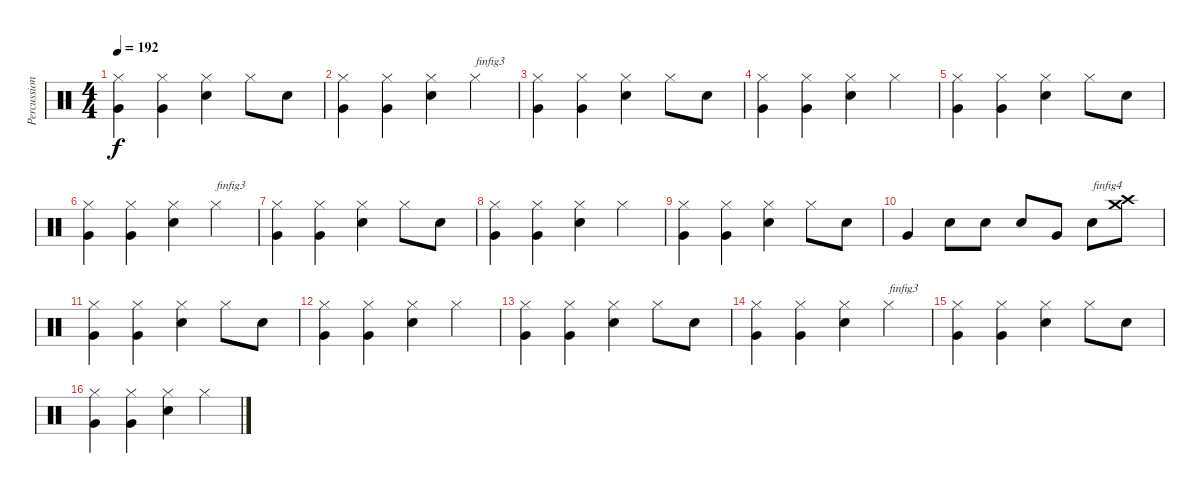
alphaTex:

\track ("Percussions" "Percussion") {instrument percussion}
\staff {score}
\articulation defaults
\ts (4 4)
\tempo 192
\clef neutral
\ks c
("Very Low Tom (hit)" "Hi-Hat (closed)").4{dy f} ("Very Low Tom (hit)" "Hi-Hat (closed)").4 ("Snare (hit) 2" "Hi-Hat (closed)").4 "Hi-Hat (closed)".8 "Snare (hit) 2".8 |
("Very Low Tom (hit)" "Hi-Hat (closed)").4 ("Very Low Tom (hit)" "Hi-Hat (closed)").4 ("Snare (hit) 2" "Hi-Hat (closed)").4 "Hi-Hat (closed)".4{txt "finfig3"} |
("Very Low Tom (hit)" "Hi-Hat (closed)").4 ("Very Low Tom (hit)" "Hi-Hat (closed)").4 ("Snare (hit) 2" "Hi-Hat (closed)").4 "Hi-Hat (closed)".8 "Snare (hit) 2".8 |
("Very Low Tom (hit)" "Hi-Hat (closed)").4 ("Very Low Tom (hit)" "Hi-Hat (closed)").4 ("Snare (hit) 2" "Hi-Hat (closed)").4 "Hi-Hat (closed)".4 |
("Very Low Tom (hit)" "Hi-Hat (closed)").4 ("Very Low Tom (hit)" "Hi-Hat (closed)").4 ("Snare (hit) 2" "Hi-Hat (closed)").4 "Hi-Hat (closed)".8 "Snare (hit) 2".8 |
("Very Low Tom (hit)" "Hi-Hat (closed)").4 ("Very Low Tom (hit)" "Hi-Hat (closed)").4 ("Snare (hit) 2" "Hi-Hat (closed)").4 "Hi-Hat (closed)".4{txt "finfig3"} |
("Very Low Tom (hit)" "Hi-Hat (closed)").4 ("Very Low Tom (hit)" "Hi-Hat (closed)").4 ("Snare (hit) 2" "Hi-Hat (closed)").4 "Hi-Hat (closed)".8 "Snare (hit) 2".8 |
("Very Low Tom (hit)" "Hi-Hat (closed)").4 ("Very Low Tom (hit)" "Hi-Hat (closed)").4 ("Snare (hit) 2" "Hi-Hat (closed)").4 "Hi-Hat (closed)".4 |
("Very Low Tom (hit)" "Hi-Hat (closed)").4 ("Very Low Tom (hit)" "Hi-Hat (closed)").4 ("Snare (hit) 2" "Hi-Hat (closed)").4 "Hi-Hat (closed)".8 "Snare (hit) 2".8 |
"Very Low Tom (hit)".4 "Snare (hit) 2".8 "Snare (hit) 2".8 "Snare (hit) 2".8 "Very Low Tom (hit)".8 "Snare (hit) 2".8{txt "finfig4"} ("Crash high (hit)" "Crash medium (hit)").8 |
("Very Low Tom (hit)" "Hi-Hat (closed)").4 ("Very Low Tom (hit)" "Hi-Hat (closed)").4 ("Snare (hit) 2" "Hi-Hat (closed)").4 "Hi-Hat (closed)".8 "Snare (hit) 2".8 |
("Very Low Tom (hit)" "Hi-Hat (closed)").4 ("Very Low Tom (hit)" "Hi-Hat (closed)").4 ("Snare (hit) 2" "Hi-Hat (closed)").4 "Hi-Hat (closed)".4 |
("Very Low Tom (hit)" "Hi-Hat (closed)").4 ("Very Low Tom (hit)" "Hi-Hat (closed)").4 ("Snare (hit) 2" "Hi-Hat (closed)").4 "Hi-Hat (closed)".8 "Snare (hit) 2".8 |
("Very Low Tom (hit)" "Hi-Hat (closed)").4 ("Very Low Tom (hit)" "Hi-Hat (closed)").4 ("Snare (hit) 2" "Hi-Hat (closed)").4 "Hi-Hat (closed)".4{txt "finfig3"} |
("Very Low Tom (hit)" "Hi-Hat (closed)").4 ("Very Low Tom (hit)" "Hi-Hat (closed)").4 ("Snare (hit) 2" "Hi-Hat (closed)").4 "Hi-Hat (closed)".8 "Snare (hit) 2".8 |
("Very Low Tom (hit)" "Hi-Hat (closed)").4 ("Very Low Tom (hit)" "Hi-Hat (closed)").4 ("Snare (hit) 2" "Hi-Hat (closed)").4 "Hi-Hat (closed)".4
